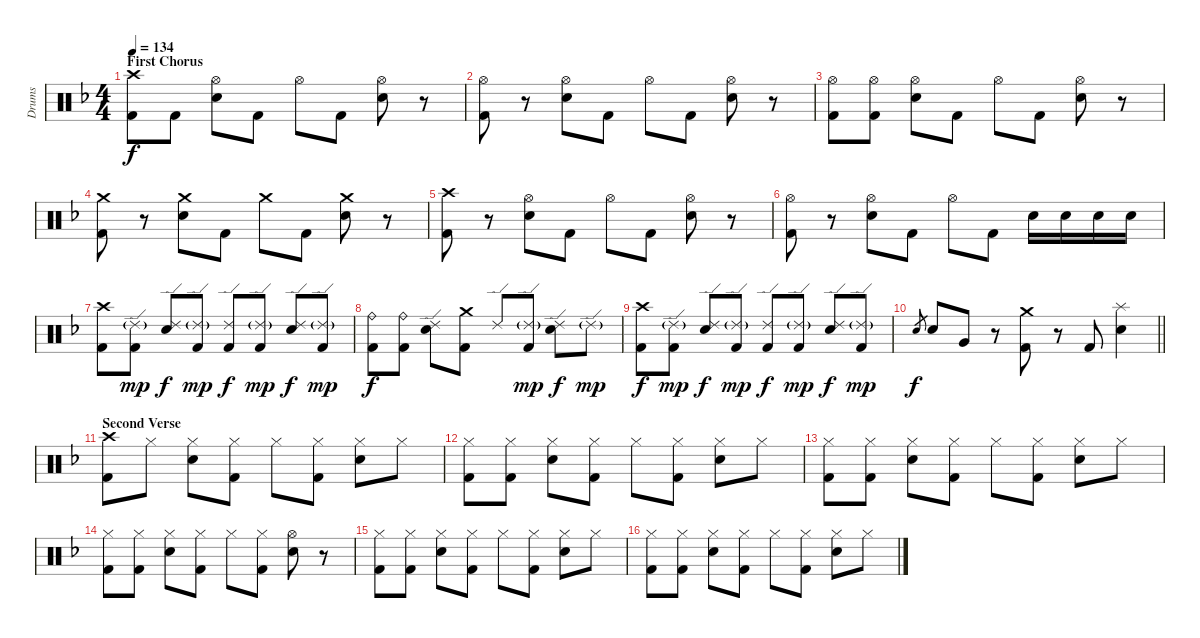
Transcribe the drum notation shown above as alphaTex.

\track ("Drums" "Drums") {instrument percussion}
\staff {score}
\articulation defaults
\ts (4 4)
\section ("" "First Chorus")
\tempo 134
\clef neutral
\ks f
("Crash high (hit)" "Kick (hit) 2").8{dy f} "Kick (hit) 2".8 ("Hi-Hat (open)" "Electric Snare (hit)").8 "Kick (hit) 2".8 "Hi-Hat (open)".8 "Kick (hit) 2".8 ("Hi-Hat (open)" "Electric Snare (hit)").8 r.8 |
("Hi-Hat (open)" "Kick (hit) 2").8 r.8 ("Hi-Hat (open)" "Electric Snare (hit)").8 "Kick (hit) 2".8 "Hi-Hat (open)".8 "Kick (hit) 2".8 ("Hi-Hat (open)" "Electric Snare (hit)").8 r.8 |
("Hi-Hat (open)" "Kick (hit) 2").8 ("Hi-Hat (open)" "Kick (hit) 2").8 ("Hi-Hat (open)" "Electric Snare (hit)").8 "Kick (hit) 2".8 "Hi-Hat (open)".8 "Kick (hit) 2".8 ("Hi-Hat (open)" "Electric Snare (hit)").8 r.8 |
("Crash medium (hit)" "Kick (hit) 2").8 r.8 ("Crash medium (hit)" "Electric Snare (hit)").8 "Kick (hit) 2".8 "Crash medium (hit)".8 "Kick (hit) 2".8 ("Crash medium (hit)" "Electric Snare (hit)").8 r.8 |
("Crash high (hit)" "Kick (hit) 2").8 r.8 ("Hi-Hat (open)" "Electric Snare (hit)").8 "Kick (hit) 2".8 "Hi-Hat (open)".8 "Kick (hit) 2".8 ("Hi-Hat (open)" "Electric Snare (hit)").8 r.8 |
("Hi-Hat (open)" "Kick (hit) 2").8 r.8 ("Hi-Hat (open)" "Electric Snare (hit)").8 "Kick (hit) 2".8 "Hi-Hat (open)".8 "Kick (hit) 2".8 "Electric Snare (hit)".16 "Electric Snare (hit)".16 "Electric Snare (hit)".16 "Electric Snare (hit)".16 |
("Crash high (hit)" "Kick (hit) 2").8 ("Ride (edge) 2"{g} "Kick (hit) 2").8{dy mp} ("Ride (edge) 2" "Electric Snare (hit)").8{dy f} ("Ride (edge) 2"{g} "Kick (hit) 2").8{dy mp} ("Ride (edge) 2" "Kick (hit) 2").8{dy f} ("Ride (edge) 2"{g} "Kick (hit) 2").8{dy mp} ("Ride (edge) 2" "Electric Snare (hit)").8{dy f} ("Ride (edge) 2"{g} "Kick (hit) 2").8{dy mp} |
("Ride (bell)" "Kick (hit) 2").8{dy f} ("Ride (bell)" "Kick (hit) 2").8 ("Ride (edge) 2" "Electric Snare (hit)").8 ("Crash medium (hit)" "Kick (hit) 2").8 "Ride (edge) 2".8 ("Ride (edge) 2"{g} "Kick (hit) 2").8{dy mp} ("Ride (edge) 2" "Electric Snare (hit)").8{dy f} "Ride (edge) 2"{g}.8{dy mp} |
("Crash high (hit)" "Kick (hit) 2").8{dy f} ("Ride (edge) 2"{g} "Kick (hit) 2").8{dy mp} ("Ride (edge) 2" "Electric Snare (hit)").8{dy f} ("Ride (edge) 2"{g} "Kick (hit) 2").8{dy mp} ("Ride (edge) 2" "Kick (hit) 2").8{dy f} ("Ride (edge) 2"{g} "Kick (hit) 2").8{dy mp} ("Ride (edge) 2" "Electric Snare (hit)").8{dy f} ("Ride (edge) 2"{g} "Kick (hit) 2").8{dy mp} |
\barLineRight lightlight "Electric Snare (hit)".8{gr dy f} "Electric Snare (hit)".8 "Very Low Tom (hit)".8
r.8 ("Crash medium (hit)" "Kick (hit) 2").8 r.8 "Kick (hit) 2".8 ("Splash (hit)" "Electric Snare (hit)").4 |
\section ("" "Second Verse")
("Crash high (hit)" "Kick (hit) 2").8 "Hi-Hat (closed)".8 ("Hi-Hat (closed)" "Electric Snare (hit)").8 ("Hi-Hat (closed)" "Kick (hit) 2").8 "Hi-Hat (closed)".8 ("Hi-Hat (closed)" "Kick (hit) 2").8 ("Hi-Hat (closed)" "Electric Snare (hit)").8 "Hi-Hat (closed)".8 |
("Hi-Hat (closed)" "Kick (hit) 2").8 ("Hi-Hat (closed)" "Kick (hit) 2").8 ("Hi-Hat (closed)" "Electric Snare (hit)").8 ("Hi-Hat (closed)" "Kick (hit) 2").8 "Hi-Hat (closed)".8 ("Hi-Hat (closed)" "Kick (hit) 2").8 ("Hi-Hat (closed)" "Electric Snare (hit)").8 "Hi-Hat (closed)".8 |
("Hi-Hat (closed)" "Kick (hit) 2").8 ("Hi-Hat (closed)" "Kick (hit) 2").8 ("Hi-Hat (closed)" "Electric Snare (hit)").8 ("Hi-Hat (closed)" "Kick (hit) 2").8 "Hi-Hat (closed)".8 ("Hi-Hat (closed)" "Kick (hit) 2").8 ("Hi-Hat (closed)" "Electric Snare (hit)").8 "Hi-Hat (closed)".8 |
("Hi-Hat (closed)" "Kick (hit) 2").8 ("Hi-Hat (closed)" "Kick (hit) 2").8 ("Hi-Hat (closed)" "Electric Snare (hit)").8 ("Hi-Hat (closed)" "Kick (hit) 2").8 "Hi-Hat (closed)".8 ("Hi-Hat (closed)" "Kick (hit) 2").8 ("Hi-Hat (open)" "Electric Snare (hit)").8 r.8 |
("Hi-Hat (closed)" "Kick (hit) 2").8 ("Hi-Hat (closed)" "Kick (hit) 2").8 ("Hi-Hat (closed)" "Electric Snare (hit)").8 ("Hi-Hat (closed)" "Kick (hit) 2").8 "Hi-Hat (closed)".8 ("Hi-Hat (closed)" "Kick (hit) 2").8 ("Hi-Hat (closed)" "Electric Snare (hit)").8 "Hi-Hat (closed)".8 |
("Hi-Hat (closed)" "Kick (hit) 2").8 ("Hi-Hat (closed)" "Kick (hit) 2").8 ("Hi-Hat (closed)" "Electric Snare (hit)").8 ("Hi-Hat (closed)" "Kick (hit) 2").8 "Hi-Hat (closed)".8 ("Hi-Hat (closed)" "Kick (hit) 2").8 ("Hi-Hat (closed)" "Electric Snare (hit)").8 "Hi-Hat (closed)".8
